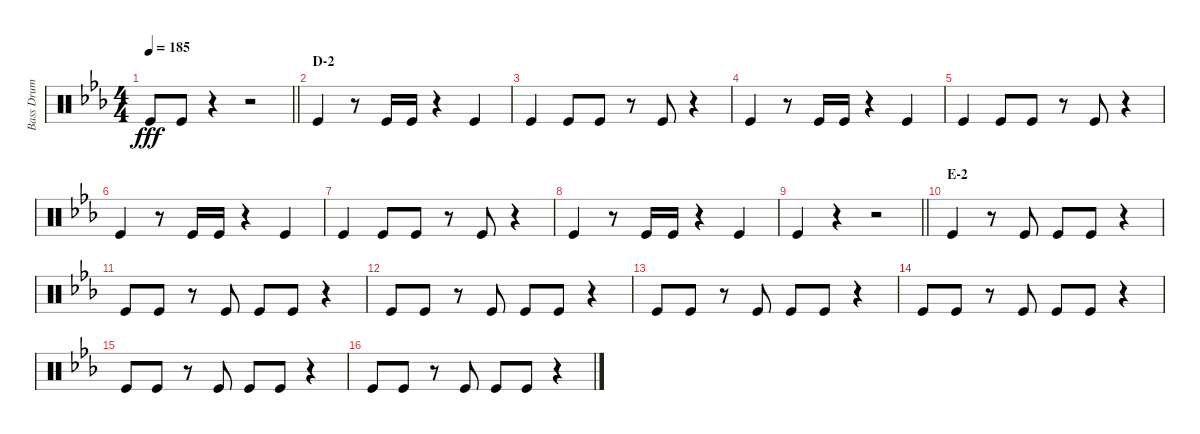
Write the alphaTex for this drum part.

\track ("Bass Drum" "Bass Drum") {instrument percussion}
\staff {score}
\articulation defaults
\ts (4 4)
\tempo 185
\clef neutral
\barLineRight lightlight
\ks eb "Kick (hit)".8{dy fff} "Kick (hit)".8
r.4 r.2 |
\section ("" "D-2")
"Kick (hit)".4 r.8 "Kick (hit)".16 "Kick (hit)".16 r.4 "Kick (hit)".4 |
"Kick (hit)".4 "Kick (hit)".8 "Kick (hit)".8 r.8 "Kick (hit)".8 r.4 |
"Kick (hit)".4 r.8 "Kick (hit)".16 "Kick (hit)".16 r.4 "Kick (hit)".4 |
"Kick (hit)".4 "Kick (hit)".8 "Kick (hit)".8 r.8 "Kick (hit)".8 r.4 |
"Kick (hit)".4 r.8 "Kick (hit)".16 "Kick (hit)".16 r.4 "Kick (hit)".4 |
"Kick (hit)".4 "Kick (hit)".8 "Kick (hit)".8 r.8 "Kick (hit)".8 r.4 |
"Kick (hit)".4 r.8 "Kick (hit)".16 "Kick (hit)".16 r.4 "Kick (hit)".4 |
\barLineRight lightlight "Kick (hit)".4
r.4 r.2 |
\section ("" "E-2")
"Kick (hit)".4 r.8 "Kick (hit)".8 "Kick (hit)".8 "Kick (hit)".8 r.4 |
"Kick (hit)".8 "Kick (hit)".8 r.8 "Kick (hit)".8 "Kick (hit)".8 "Kick (hit)".8 r.4 |
"Kick (hit)".8 "Kick (hit)".8 r.8 "Kick (hit)".8 "Kick (hit)".8 "Kick (hit)".8 r.4 |
"Kick (hit)".8 "Kick (hit)".8 r.8 "Kick (hit)".8 "Kick (hit)".8 "Kick (hit)".8 r.4 |
"Kick (hit)".8 "Kick (hit)".8 r.8 "Kick (hit)".8 "Kick (hit)".8 "Kick (hit)".8 r.4 |
"Kick (hit)".8 "Kick (hit)".8 r.8 "Kick (hit)".8 "Kick (hit)".8 "Kick (hit)".8 r.4 |
"Kick (hit)".8 "Kick (hit)".8 r.8 "Kick (hit)".8 "Kick (hit)".8 "Kick (hit)".8 r.4
